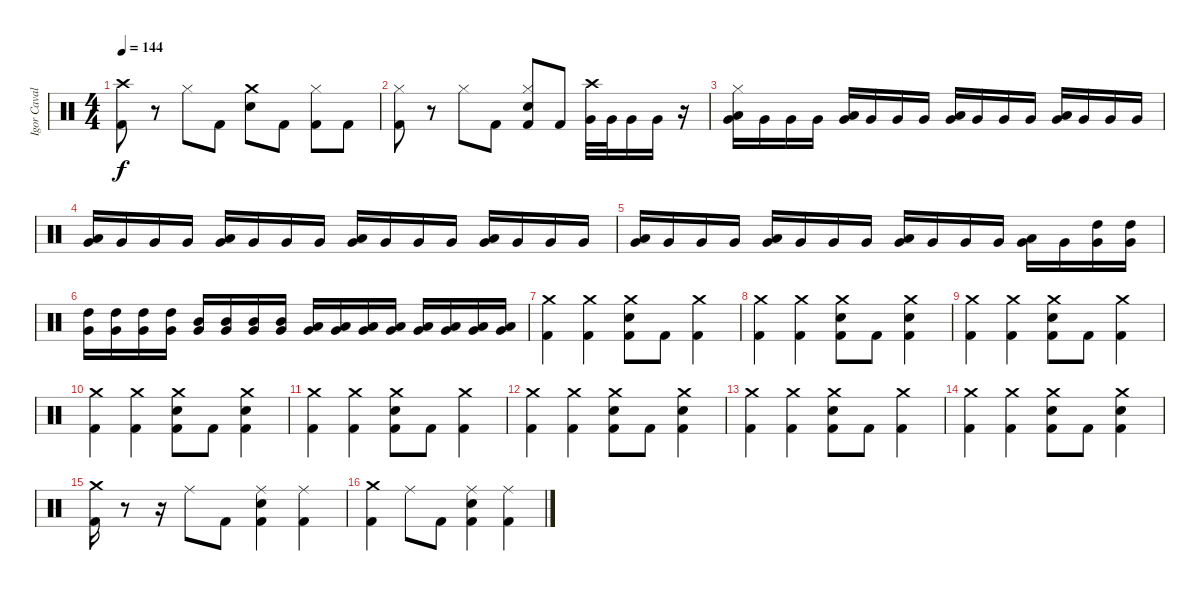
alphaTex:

\track ("Igor Cavalera" "Igor Caval") {instrument percussion}
\staff {score}
\articulation defaults
\ts (4 4)
\tempo 144
\clef neutral
\ks c
("Kick (hit) 2" "Crash high (hit)").8{dy f} r.8 "Hi-Hat (closed)".8 "Kick (hit) 2".8 ("Snare (hit) 2" "Crash medium (hit)").8 "Kick (hit) 2".8 ("Hi-Hat (closed)" "Kick (hit) 2").8 "Kick (hit) 2".8 |
("Kick (hit) 2" "Hi-Hat (closed)").8 r.8 "Hi-Hat (closed)".8 "Kick (hit) 2".8 ("Kick (hit) 2" "Hi-Hat (closed)" "Snare (hit) 2").8 "Kick (hit) 2".8 ("Crash high (hit)" "Very Low Tom (hit)").32 "Very Low Tom (hit)".32 "Very Low Tom (hit)".16 "Very Low Tom (hit)".16 r.16 |
("Hi-Hat (closed)" "Low Tom (hit)" "Very Low Tom (hit)").16 "Very Low Tom (hit)".16 "Very Low Tom (hit)".16 "Very Low Tom (hit)".16 ("Very Low Tom (hit)" "Low Tom (hit)").16 "Very Low Tom (hit)".16 "Very Low Tom (hit)".16 "Very Low Tom (hit)".16 ("Very Low Tom (hit)" "Low Tom (hit)").16 "Very Low Tom (hit)".16 "Very Low Tom (hit)".16 "Very Low Tom (hit)".16 ("Very Low Tom (hit)" "Low Tom (hit)").16 "Very Low Tom (hit)".16 "Very Low Tom (hit)".16 "Very Low Tom (hit)".16 |
("Very Low Tom (hit)" "Low Tom (hit)").16 "Very Low Tom (hit)".16 "Very Low Tom (hit)".16 "Very Low Tom (hit)".16 ("Very Low Tom (hit)" "Low Tom (hit)").16 "Very Low Tom (hit)".16 "Very Low Tom (hit)".16 "Very Low Tom (hit)".16 ("Very Low Tom (hit)" "Low Tom (hit)").16 "Very Low Tom (hit)".16 "Very Low Tom (hit)".16 "Very Low Tom (hit)".16 ("Very Low Tom (hit)" "Low Tom (hit)").16 "Very Low Tom (hit)".16 "Very Low Tom (hit)".16 "Very Low Tom (hit)".16 |
("Very Low Tom (hit)" "Low Tom (hit)").16 "Very Low Tom (hit)".16 "Very Low Tom (hit)".16 "Very Low Tom (hit)".16 ("Very Low Tom (hit)" "Low Tom (hit)").16 "Very Low Tom (hit)".16 "Very Low Tom (hit)".16 "Very Low Tom (hit)".16 ("Very Low Tom (hit)" "Low Tom (hit)").16 "Very Low Tom (hit)".16 "Very Low Tom (hit)".16 "Very Low Tom (hit)".16 ("Very Low Tom (hit)" "Low Tom (hit)").16 "Very Low Tom (hit)".16 ("Very Low Tom (hit)" "High Tom (hit)").16 ("Very Low Tom (hit)" "High Tom (hit)").16 |
("Very Low Tom (hit)" "High Tom (hit)").16 ("Very Low Tom (hit)" "High Tom (hit)").16 ("Very Low Tom (hit)" "High Tom (hit)").16 ("Very Low Tom (hit)" "High Tom (hit)").16 ("Very Low Tom (hit)" "Mid Tom (hit)").16 ("Very Low Tom (hit)" "Mid Tom (hit)").16 ("Very Low Tom (hit)" "Mid Tom (hit)").16 ("Very Low Tom (hit)" "Mid Tom (hit)").16 ("Very Low Tom (hit)" "Low Tom (hit)").16 ("Very Low Tom (hit)" "Low Tom (hit)").16 ("Very Low Tom (hit)" "Low Tom (hit)").16 ("Very Low Tom (hit)" "Low Tom (hit)").16 ("Very Low Tom (hit)" "Low Floor Tom (hit)").16 ("Very Low Tom (hit)" "Low Floor Tom (hit)").16 ("Very Low Tom (hit)" "Low Floor Tom (hit)").16 ("Very Low Tom (hit)" "Low Floor Tom (hit)").16 |
("Kick (hit) 2" "Crash medium (hit)").4 ("Kick (hit) 2" "Crash medium (hit)").4 ("Snare (hit) 2" "Crash medium (hit)" "Kick (hit) 2").8 "Kick (hit) 2".8 ("Kick (hit) 2" "Crash medium (hit)").4 |
("Kick (hit) 2" "Crash medium (hit)").4 ("Kick (hit) 2" "Crash medium (hit)").4 ("Snare (hit) 2" "Crash medium (hit)" "Kick (hit) 2").8 "Kick (hit) 2".8 ("Kick (hit) 2" "Crash medium (hit)" "Snare (hit) 2").4 |
("Kick (hit) 2" "Crash medium (hit)").4 ("Kick (hit) 2" "Crash medium (hit)").4 ("Snare (hit) 2" "Crash medium (hit)" "Kick (hit) 2").8 "Kick (hit) 2".8 ("Kick (hit) 2" "Crash medium (hit)").4 |
("Kick (hit) 2" "Crash medium (hit)").4 ("Kick (hit) 2" "Crash medium (hit)").4 ("Snare (hit) 2" "Crash medium (hit)" "Kick (hit) 2").8 "Kick (hit) 2".8 ("Kick (hit) 2" "Crash medium (hit)" "Snare (hit) 2").4 |
("Kick (hit) 2" "Crash medium (hit)").4 ("Kick (hit) 2" "Crash medium (hit)").4 ("Snare (hit) 2" "Crash medium (hit)" "Kick (hit) 2").8 "Kick (hit) 2".8 ("Kick (hit) 2" "Crash medium (hit)").4 |
("Kick (hit) 2" "Crash medium (hit)").4 ("Kick (hit) 2" "Crash medium (hit)").4 ("Snare (hit) 2" "Crash medium (hit)" "Kick (hit) 2").8 "Kick (hit) 2".8 ("Kick (hit) 2" "Crash medium (hit)" "Snare (hit) 2").4 |
("Kick (hit) 2" "Crash medium (hit)").4 ("Kick (hit) 2" "Crash medium (hit)").4 ("Snare (hit) 2" "Crash medium (hit)" "Kick (hit) 2").8 "Kick (hit) 2".8 ("Kick (hit) 2" "Crash medium (hit)").4 |
("Kick (hit) 2" "Crash medium (hit)").4 ("Kick (hit) 2" "Crash medium (hit)").4 ("Snare (hit) 2" "Crash medium (hit)" "Kick (hit) 2").8 "Kick (hit) 2".8 ("Kick (hit) 2" "Crash medium (hit)" "Snare (hit) 2").4 |
("Kick (hit) 2" "Crash medium (hit)").16 r.8 r.16 "Ride (middle)".8 "Kick (hit) 2".8 ("Snare (hit) 2" "Ride (middle)" "Kick (hit) 2").4 ("Kick (hit) 2" "Ride (middle)").4 |
("Kick (hit) 2" "Crash medium (hit)").4 "Ride (middle)".8 "Kick (hit) 2".8 ("Snare (hit) 2" "Ride (middle)" "Kick (hit) 2").4 ("Kick (hit) 2" "Ride (middle)").4
